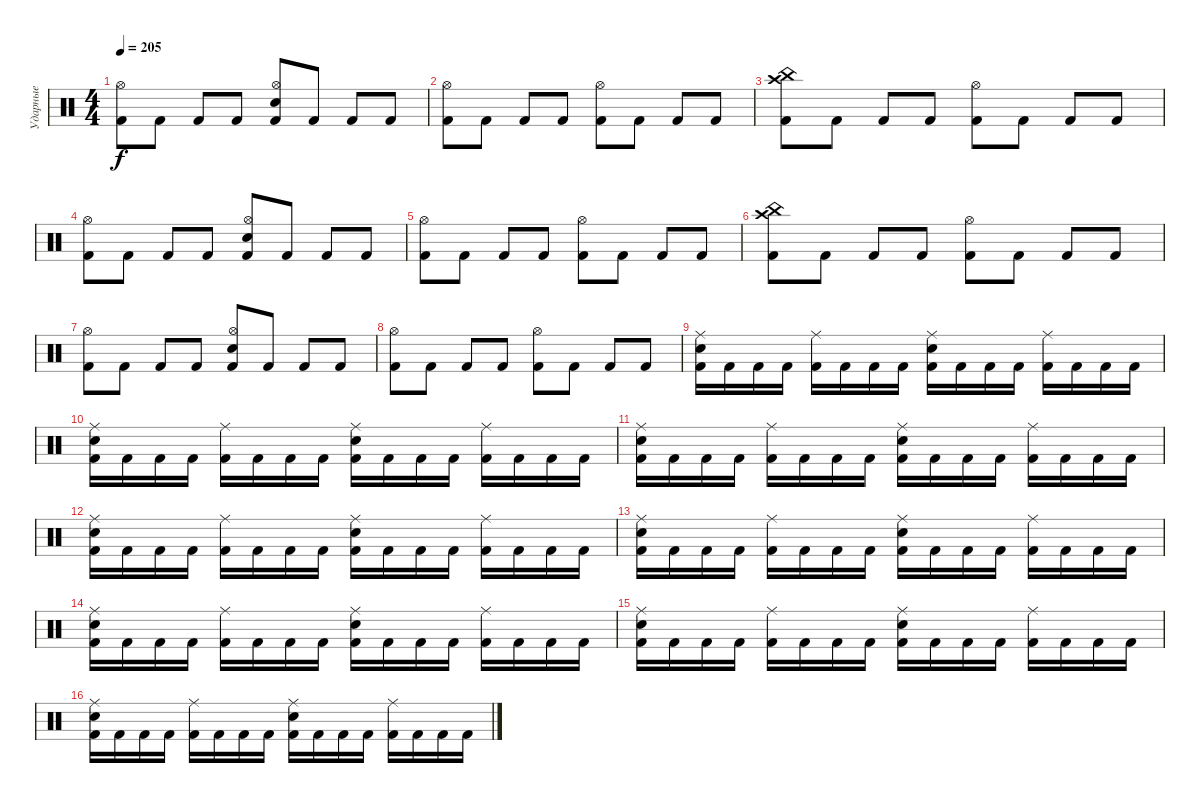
\track ("Ударные" "Ударные") {instrument percussion}
\staff {score}
\articulation defaults
\ts (4 4)
\tempo 205
\clef neutral
\ks c
("Kick (hit) 2" "Hi-Hat (open)").8{dy f} "Kick (hit) 2".8 "Kick (hit) 2".8 "Kick (hit) 2".8 ("Kick (hit) 2" "Electric Snare (hit)" "Hi-Hat (open)").8 "Kick (hit) 2".8 "Kick (hit) 2".8 "Kick (hit) 2".8 |
("Kick (hit) 2" "Hi-Hat (open)").8 "Kick (hit) 2".8 "Kick (hit) 2".8 "Kick (hit) 2".8 ("Kick (hit) 2" "Hi-Hat (open)").8 "Kick (hit) 2".8 "Kick (hit) 2".8 "Kick (hit) 2".8 |
("Kick (hit) 2" "Crash high (hit)" "China (hit)").8 "Kick (hit) 2".8 "Kick (hit) 2".8 "Kick (hit) 2".8 ("Kick (hit) 2" "Hi-Hat (open)").8 "Kick (hit) 2".8 "Kick (hit) 2".8 "Kick (hit) 2".8 |
("Kick (hit) 2" "Hi-Hat (open)").8 "Kick (hit) 2".8 "Kick (hit) 2".8 "Kick (hit) 2".8 ("Kick (hit) 2" "Electric Snare (hit)" "Hi-Hat (open)").8 "Kick (hit) 2".8 "Kick (hit) 2".8 "Kick (hit) 2".8 |
("Kick (hit) 2" "Hi-Hat (open)").8 "Kick (hit) 2".8 "Kick (hit) 2".8 "Kick (hit) 2".8 ("Kick (hit) 2" "Hi-Hat (open)").8 "Kick (hit) 2".8 "Kick (hit) 2".8 "Kick (hit) 2".8 |
("Kick (hit) 2" "Crash high (hit)" "China (hit)").8 "Kick (hit) 2".8 "Kick (hit) 2".8 "Kick (hit) 2".8 ("Kick (hit) 2" "Hi-Hat (open)").8 "Kick (hit) 2".8 "Kick (hit) 2".8 "Kick (hit) 2".8 |
("Kick (hit) 2" "Hi-Hat (open)").8 "Kick (hit) 2".8 "Kick (hit) 2".8 "Kick (hit) 2".8 ("Kick (hit) 2" "Electric Snare (hit)" "Hi-Hat (open)").8 "Kick (hit) 2".8 "Kick (hit) 2".8 "Kick (hit) 2".8 |
("Kick (hit) 2" "Hi-Hat (open)").8 "Kick (hit) 2".8 "Kick (hit) 2".8 "Kick (hit) 2".8 ("Kick (hit) 2" "Hi-Hat (open)").8 "Kick (hit) 2".8 "Kick (hit) 2".8 "Kick (hit) 2".8 |
("Electric Snare (hit)" "Ride (middle)" "Kick (hit) 2").16 "Kick (hit) 2".16 "Kick (hit) 2".16 "Kick (hit) 2".16 ("Kick (hit) 2" "Ride (middle)").16 "Kick (hit) 2".16 "Kick (hit) 2".16 "Kick (hit) 2".16 ("Electric Snare (hit)" "Ride (middle)" "Kick (hit) 2").16 "Kick (hit) 2".16 "Kick (hit) 2".16 "Kick (hit) 2".16 ("Kick (hit) 2" "Ride (middle)").16 "Kick (hit) 2".16 "Kick (hit) 2".16 "Kick (hit) 2".16 |
("Electric Snare (hit)" "Ride (middle)" "Kick (hit) 2").16 "Kick (hit) 2".16 "Kick (hit) 2".16 "Kick (hit) 2".16 ("Kick (hit) 2" "Ride (middle)").16 "Kick (hit) 2".16 "Kick (hit) 2".16 "Kick (hit) 2".16 ("Electric Snare (hit)" "Ride (middle)" "Kick (hit) 2").16 "Kick (hit) 2".16 "Kick (hit) 2".16 "Kick (hit) 2".16 ("Kick (hit) 2" "Ride (middle)").16 "Kick (hit) 2".16 "Kick (hit) 2".16 "Kick (hit) 2".16 |
("Electric Snare (hit)" "Ride (middle)" "Kick (hit) 2").16 "Kick (hit) 2".16 "Kick (hit) 2".16 "Kick (hit) 2".16 ("Kick (hit) 2" "Ride (middle)").16 "Kick (hit) 2".16 "Kick (hit) 2".16 "Kick (hit) 2".16 ("Electric Snare (hit)" "Ride (middle)" "Kick (hit) 2").16 "Kick (hit) 2".16 "Kick (hit) 2".16 "Kick (hit) 2".16 ("Kick (hit) 2" "Ride (middle)").16 "Kick (hit) 2".16 "Kick (hit) 2".16 "Kick (hit) 2".16 |
("Electric Snare (hit)" "Ride (middle)" "Kick (hit) 2").16 "Kick (hit) 2".16 "Kick (hit) 2".16 "Kick (hit) 2".16 ("Kick (hit) 2" "Ride (middle)").16 "Kick (hit) 2".16 "Kick (hit) 2".16 "Kick (hit) 2".16 ("Electric Snare (hit)" "Ride (middle)" "Kick (hit) 2").16 "Kick (hit) 2".16 "Kick (hit) 2".16 "Kick (hit) 2".16 ("Kick (hit) 2" "Ride (middle)").16 "Kick (hit) 2".16 "Kick (hit) 2".16 "Kick (hit) 2".16 |
("Electric Snare (hit)" "Ride (middle)" "Kick (hit) 2").16 "Kick (hit) 2".16 "Kick (hit) 2".16 "Kick (hit) 2".16 ("Kick (hit) 2" "Ride (middle)").16 "Kick (hit) 2".16 "Kick (hit) 2".16 "Kick (hit) 2".16 ("Electric Snare (hit)" "Ride (middle)" "Kick (hit) 2").16 "Kick (hit) 2".16 "Kick (hit) 2".16 "Kick (hit) 2".16 ("Kick (hit) 2" "Ride (middle)").16 "Kick (hit) 2".16 "Kick (hit) 2".16 "Kick (hit) 2".16 |
("Electric Snare (hit)" "Ride (middle)" "Kick (hit) 2").16 "Kick (hit) 2".16 "Kick (hit) 2".16 "Kick (hit) 2".16 ("Kick (hit) 2" "Ride (middle)").16 "Kick (hit) 2".16 "Kick (hit) 2".16 "Kick (hit) 2".16 ("Electric Snare (hit)" "Ride (middle)" "Kick (hit) 2").16 "Kick (hit) 2".16 "Kick (hit) 2".16 "Kick (hit) 2".16 ("Kick (hit) 2" "Ride (middle)").16 "Kick (hit) 2".16 "Kick (hit) 2".16 "Kick (hit) 2".16 |
("Electric Snare (hit)" "Ride (middle)" "Kick (hit) 2").16 "Kick (hit) 2".16 "Kick (hit) 2".16 "Kick (hit) 2".16 ("Kick (hit) 2" "Ride (middle)").16 "Kick (hit) 2".16 "Kick (hit) 2".16 "Kick (hit) 2".16 ("Electric Snare (hit)" "Ride (middle)" "Kick (hit) 2").16 "Kick (hit) 2".16 "Kick (hit) 2".16 "Kick (hit) 2".16 ("Kick (hit) 2" "Ride (middle)").16 "Kick (hit) 2".16 "Kick (hit) 2".16 "Kick (hit) 2".16 |
("Electric Snare (hit)" "Ride (middle)" "Kick (hit) 2").16 "Kick (hit) 2".16 "Kick (hit) 2".16 "Kick (hit) 2".16 ("Kick (hit) 2" "Ride (middle)").16 "Kick (hit) 2".16 "Kick (hit) 2".16 "Kick (hit) 2".16 ("Electric Snare (hit)" "Ride (middle)" "Kick (hit) 2").16 "Kick (hit) 2".16 "Kick (hit) 2".16 "Kick (hit) 2".16 ("Kick (hit) 2" "Ride (middle)").16 "Kick (hit) 2".16 "Kick (hit) 2".16 "Kick (hit) 2".16
